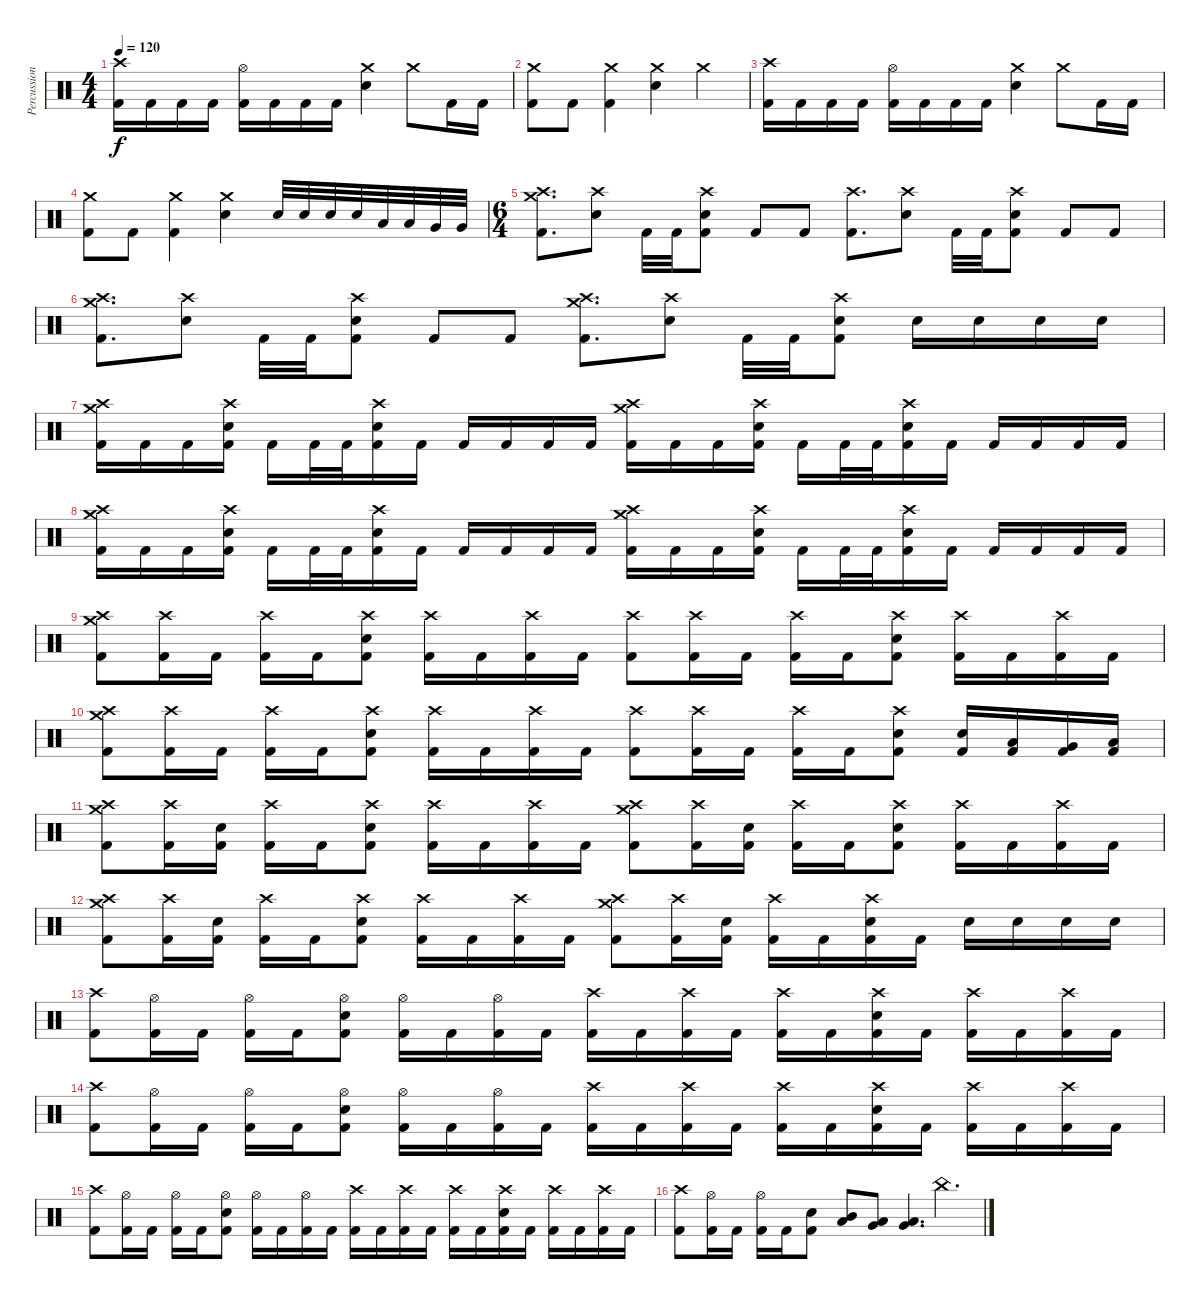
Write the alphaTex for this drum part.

\track ("Percussion" "Percussion") {instrument percussion}
\staff {score}
\articulation defaults
\ts (4 4)
\tempo 120
\clef neutral
\ks c
("Crash high (hit)" "Kick (hit) 2").16{dy f} "Kick (hit) 2".16 "Kick (hit) 2".16 "Kick (hit) 2".16 ("Hi-Hat (open)" "Kick (hit) 2").16 "Kick (hit) 2".16 "Kick (hit) 2".16 "Kick (hit) 2".16 ("Crash medium (hit)" "Electric Snare (hit)").4 "Crash medium (hit)".8 "Kick (hit) 2".16 "Kick (hit) 2".16 |
("Crash medium (hit)" "Kick (hit) 2").8 "Kick (hit) 2".8 ("Crash medium (hit)" "Kick (hit) 2").4 ("Crash medium (hit)" "Electric Snare (hit)").4 "Crash medium (hit)".4 |
("Crash high (hit)" "Kick (hit) 2").16 "Kick (hit) 2".16 "Kick (hit) 2".16 "Kick (hit) 2".16 ("Hi-Hat (open)" "Kick (hit) 2").16 "Kick (hit) 2".16 "Kick (hit) 2".16 "Kick (hit) 2".16 ("Crash medium (hit)" "Electric Snare (hit)").4 "Crash medium (hit)".8 "Kick (hit) 2".16 "Kick (hit) 2".16 |
("Crash medium (hit)" "Kick (hit) 2").8 "Kick (hit) 2".8 ("Crash medium (hit)" "Kick (hit) 2").4 ("Crash medium (hit)" "Electric Snare (hit)").4 "Electric Snare (hit)".32 "Electric Snare (hit)".32 "Electric Snare (hit)".32 "Electric Snare (hit)".32 "Low Tom (hit)".32 "Low Tom (hit)".32 "Very Low Tom (hit)".32 "Very Low Tom (hit)".32 |
\ts (6 4)
("Crash medium (hit)" "Crash high (hit)" "Kick (hit) 2").8{d} ("Crash high (hit)" "Electric Snare (hit)").8 "Kick (hit) 2".32 "Kick (hit) 2".32 ("Crash high (hit)" "Electric Snare (hit)" "Kick (hit) 2").8 "Kick (hit) 2".8 "Kick (hit) 2".8 ("Crash high (hit)" "Kick (hit) 2").8{d} ("Crash high (hit)" "Electric Snare (hit)").8 "Kick (hit) 2".32 "Kick (hit) 2".32 ("Crash high (hit)" "Electric Snare (hit)" "Kick (hit) 2").8 "Kick (hit) 2".8 "Kick (hit) 2".8 |
("Crash medium (hit)" "Crash high (hit)" "Kick (hit) 2").8{d} ("Crash high (hit)" "Electric Snare (hit)").8 "Kick (hit) 2".32 "Kick (hit) 2".32 ("Crash high (hit)" "Electric Snare (hit)" "Kick (hit) 2").8 "Kick (hit) 2".8 "Kick (hit) 2".8 ("Crash medium (hit)" "Crash high (hit)" "Kick (hit) 2").8{d} ("Crash high (hit)" "Electric Snare (hit)").8 "Kick (hit) 2".32 "Kick (hit) 2".32 ("Crash high (hit)" "Electric Snare (hit)" "Kick (hit) 2").8 "Electric Snare (hit)".16 "Electric Snare (hit)".16 "Electric Snare (hit)".16 "Electric Snare (hit)".16 |
("Crash medium (hit)" "Crash high (hit)" "Kick (hit) 2").16 "Kick (hit) 2".16 "Kick (hit) 2".16 ("Crash high (hit)" "Electric Snare (hit)" "Kick (hit) 2").16 "Kick (hit) 2".16 "Kick (hit) 2".32 "Kick (hit) 2".32 ("Crash high (hit)" "Electric Snare (hit)" "Kick (hit) 2").16 "Kick (hit) 2".16 "Kick (hit) 2".16 "Kick (hit) 2".16 "Kick (hit) 2".16 "Kick (hit) 2".16 ("Crash medium (hit)" "Crash high (hit)" "Kick (hit) 2").16 "Kick (hit) 2".16 "Kick (hit) 2".16 ("Crash high (hit)" "Electric Snare (hit)" "Kick (hit) 2").16 "Kick (hit) 2".16 "Kick (hit) 2".32 "Kick (hit) 2".32 ("Crash high (hit)" "Electric Snare (hit)" "Kick (hit) 2").16 "Kick (hit) 2".16 "Kick (hit) 2".16 "Kick (hit) 2".16 "Kick (hit) 2".16 "Kick (hit) 2".16 |
("Crash medium (hit)" "Crash high (hit)" "Kick (hit) 2").16 "Kick (hit) 2".16 "Kick (hit) 2".16 ("Crash high (hit)" "Electric Snare (hit)" "Kick (hit) 2").16 "Kick (hit) 2".16 "Kick (hit) 2".32 "Kick (hit) 2".32 ("Crash high (hit)" "Electric Snare (hit)" "Kick (hit) 2").16 "Kick (hit) 2".16 "Kick (hit) 2".16 "Kick (hit) 2".16 "Kick (hit) 2".16 "Kick (hit) 2".16 ("Crash medium (hit)" "Crash high (hit)" "Kick (hit) 2").16 "Kick (hit) 2".16 "Kick (hit) 2".16 ("Crash high (hit)" "Electric Snare (hit)" "Kick (hit) 2").16 "Kick (hit) 2".16 "Kick (hit) 2".32 "Kick (hit) 2".32 ("Crash high (hit)" "Electric Snare (hit)" "Kick (hit) 2").16 "Kick (hit) 2".16 "Kick (hit) 2".16 "Kick (hit) 2".16 "Kick (hit) 2".16 "Kick (hit) 2".16 |
("Crash medium (hit)" "Crash high (hit)" "Kick (hit) 2").8 ("Crash high (hit)" "Kick (hit) 2").16 "Kick (hit) 2".16 ("Crash high (hit)" "Kick (hit) 2").16 "Kick (hit) 2".16 ("Crash high (hit)" "Electric Snare (hit)" "Kick (hit) 2").8 ("Crash high (hit)" "Kick (hit) 2").16 "Kick (hit) 2".16 ("Crash high (hit)" "Kick (hit) 2").16 "Kick (hit) 2".16 ("Crash high (hit)" "Kick (hit) 2").8 ("Crash high (hit)" "Kick (hit) 2").16 "Kick (hit) 2".16 ("Crash high (hit)" "Kick (hit) 2").16 "Kick (hit) 2".16 ("Crash high (hit)" "Electric Snare (hit)" "Kick (hit) 2").8 ("Crash high (hit)" "Kick (hit) 2").16 "Kick (hit) 2".16 ("Crash high (hit)" "Kick (hit) 2").16 "Kick (hit) 2".16 |
("Crash medium (hit)" "Crash high (hit)" "Kick (hit) 2").8 ("Crash high (hit)" "Kick (hit) 2").16 "Kick (hit) 2".16 ("Crash high (hit)" "Kick (hit) 2").16 "Kick (hit) 2".16 ("Crash high (hit)" "Electric Snare (hit)" "Kick (hit) 2").8 ("Crash high (hit)" "Kick (hit) 2").16 "Kick (hit) 2".16 ("Crash high (hit)" "Kick (hit) 2").16 "Kick (hit) 2".16 ("Crash high (hit)" "Kick (hit) 2").8 ("Crash high (hit)" "Kick (hit) 2").16 "Kick (hit) 2".16 ("Crash high (hit)" "Kick (hit) 2").16 "Kick (hit) 2".16 ("Crash high (hit)" "Electric Snare (hit)" "Kick (hit) 2").8 ("Electric Snare (hit)" "Kick (hit) 2").16 ("Low Tom (hit)" "Kick (hit) 2").16 ("Very Low Tom (hit)" "Kick (hit) 2").16 ("Low Floor Tom (hit)" "Kick (hit) 2").16 |
("Crash medium (hit)" "Crash high (hit)" "Kick (hit) 2").8 ("Crash high (hit)" "Kick (hit) 2").16 ("Electric Snare (hit)" "Kick (hit) 2").16 ("Crash high (hit)" "Kick (hit) 2").16 "Kick (hit) 2".16 ("Crash high (hit)" "Electric Snare (hit)" "Kick (hit) 2").8 ("Crash high (hit)" "Kick (hit) 2").16 "Kick (hit) 2".16 ("Crash high (hit)" "Kick (hit) 2").16 "Kick (hit) 2".16 ("Crash medium (hit)" "Crash high (hit)" "Kick (hit) 2").8 ("Crash high (hit)" "Kick (hit) 2").16 ("Electric Snare (hit)" "Kick (hit) 2").16 ("Crash high (hit)" "Kick (hit) 2").16 "Kick (hit) 2".16 ("Crash high (hit)" "Electric Snare (hit)" "Kick (hit) 2").8 ("Crash high (hit)" "Kick (hit) 2").16 "Kick (hit) 2".16 ("Crash high (hit)" "Kick (hit) 2").16 "Kick (hit) 2".16 |
("Crash medium (hit)" "Crash high (hit)" "Kick (hit) 2").8 ("Crash high (hit)" "Kick (hit) 2").16 ("Electric Snare (hit)" "Kick (hit) 2").16 ("Crash high (hit)" "Kick (hit) 2").16 "Kick (hit) 2".16 ("Crash high (hit)" "Electric Snare (hit)" "Kick (hit) 2").8 ("Crash high (hit)" "Kick (hit) 2").16 "Kick (hit) 2".16 ("Crash high (hit)" "Kick (hit) 2").16 "Kick (hit) 2".16 ("Crash medium (hit)" "Crash high (hit)" "Kick (hit) 2").8 ("Crash high (hit)" "Kick (hit) 2").16 ("Electric Snare (hit)" "Kick (hit) 2").16 ("Crash high (hit)" "Kick (hit) 2").16 "Kick (hit) 2".16 ("Crash high (hit)" "Electric Snare (hit)" "Kick (hit) 2").16 "Kick (hit) 2".16 "Electric Snare (hit)".16 "Electric Snare (hit)".16 "Electric Snare (hit)".16 "Electric Snare (hit)".16 |
("Crash high (hit)" "Kick (hit) 2").8 ("Hi-Hat (open)" "Kick (hit) 2").16 "Kick (hit) 2".16 ("Hi-Hat (open)" "Kick (hit) 2").16 "Kick (hit) 2".16 ("Hi-Hat (open)" "Electric Snare (hit)" "Kick (hit) 2").8 ("Hi-Hat (open)" "Kick (hit) 2").16 "Kick (hit) 2".16 ("Hi-Hat (open)" "Kick (hit) 2").16 "Kick (hit) 2".16 ("Crash high (hit)" "Kick (hit) 2").16 "Kick (hit) 2".16 ("Crash high (hit)" "Kick (hit) 2").16 "Kick (hit) 2".16 ("Crash high (hit)" "Kick (hit) 2").16 "Kick (hit) 2".16 ("Crash high (hit)" "Electric Snare (hit)" "Kick (hit) 2").16 "Kick (hit) 2".16 ("Crash high (hit)" "Kick (hit) 2").16 "Kick (hit) 2".16 ("Crash high (hit)" "Kick (hit) 2").16 "Kick (hit) 2".16 |
("Crash high (hit)" "Kick (hit) 2").8 ("Hi-Hat (open)" "Kick (hit) 2").16 "Kick (hit) 2".16 ("Hi-Hat (open)" "Kick (hit) 2").16 "Kick (hit) 2".16 ("Hi-Hat (open)" "Electric Snare (hit)" "Kick (hit) 2").8 ("Hi-Hat (open)" "Kick (hit) 2").16 "Kick (hit) 2".16 ("Hi-Hat (open)" "Kick (hit) 2").16 "Kick (hit) 2".16 ("Crash high (hit)" "Kick (hit) 2").16 "Kick (hit) 2".16 ("Crash high (hit)" "Kick (hit) 2").16 "Kick (hit) 2".16 ("Crash high (hit)" "Kick (hit) 2").16 "Kick (hit) 2".16 ("Crash high (hit)" "Electric Snare (hit)" "Kick (hit) 2").16 "Kick (hit) 2".16 ("Crash high (hit)" "Kick (hit) 2").16 "Kick (hit) 2".16 ("Crash high (hit)" "Kick (hit) 2").16 "Kick (hit) 2".16 |
("Crash high (hit)" "Kick (hit) 2").8 ("Hi-Hat (open)" "Kick (hit) 2").16 "Kick (hit) 2".16 ("Hi-Hat (open)" "Kick (hit) 2").16 "Kick (hit) 2".16 ("Hi-Hat (open)" "Electric Snare (hit)" "Kick (hit) 2").8 ("Hi-Hat (open)" "Kick (hit) 2").16 "Kick (hit) 2".16 ("Hi-Hat (open)" "Kick (hit) 2").16 "Kick (hit) 2".16 ("Crash high (hit)" "Kick (hit) 2").16 "Kick (hit) 2".16 ("Crash high (hit)" "Kick (hit) 2").16 "Kick (hit) 2".16 ("Crash high (hit)" "Kick (hit) 2").16 "Kick (hit) 2".16 ("Crash high (hit)" "Electric Snare (hit)" "Kick (hit) 2").16 "Kick (hit) 2".16 ("Crash high (hit)" "Kick (hit) 2").16 "Kick (hit) 2".16 ("Crash high (hit)" "Kick (hit) 2").16 "Kick (hit) 2".16 |
("Crash high (hit)" "Kick (hit) 2").8 ("Hi-Hat (open)" "Kick (hit) 2").16 "Kick (hit) 2".16 ("Hi-Hat (open)" "Kick (hit) 2").16 "Kick (hit) 2".16 ("Electric Snare (hit)" "Kick (hit) 2").8 ("Mid Tom (hit)" "Low Tom (hit)").8 ("Low Tom (hit)" "Very Low Tom (hit)").8 ("Very Low Tom (hit)" "Low Floor Tom (hit)").4{d} "China (hit)".4{d}
